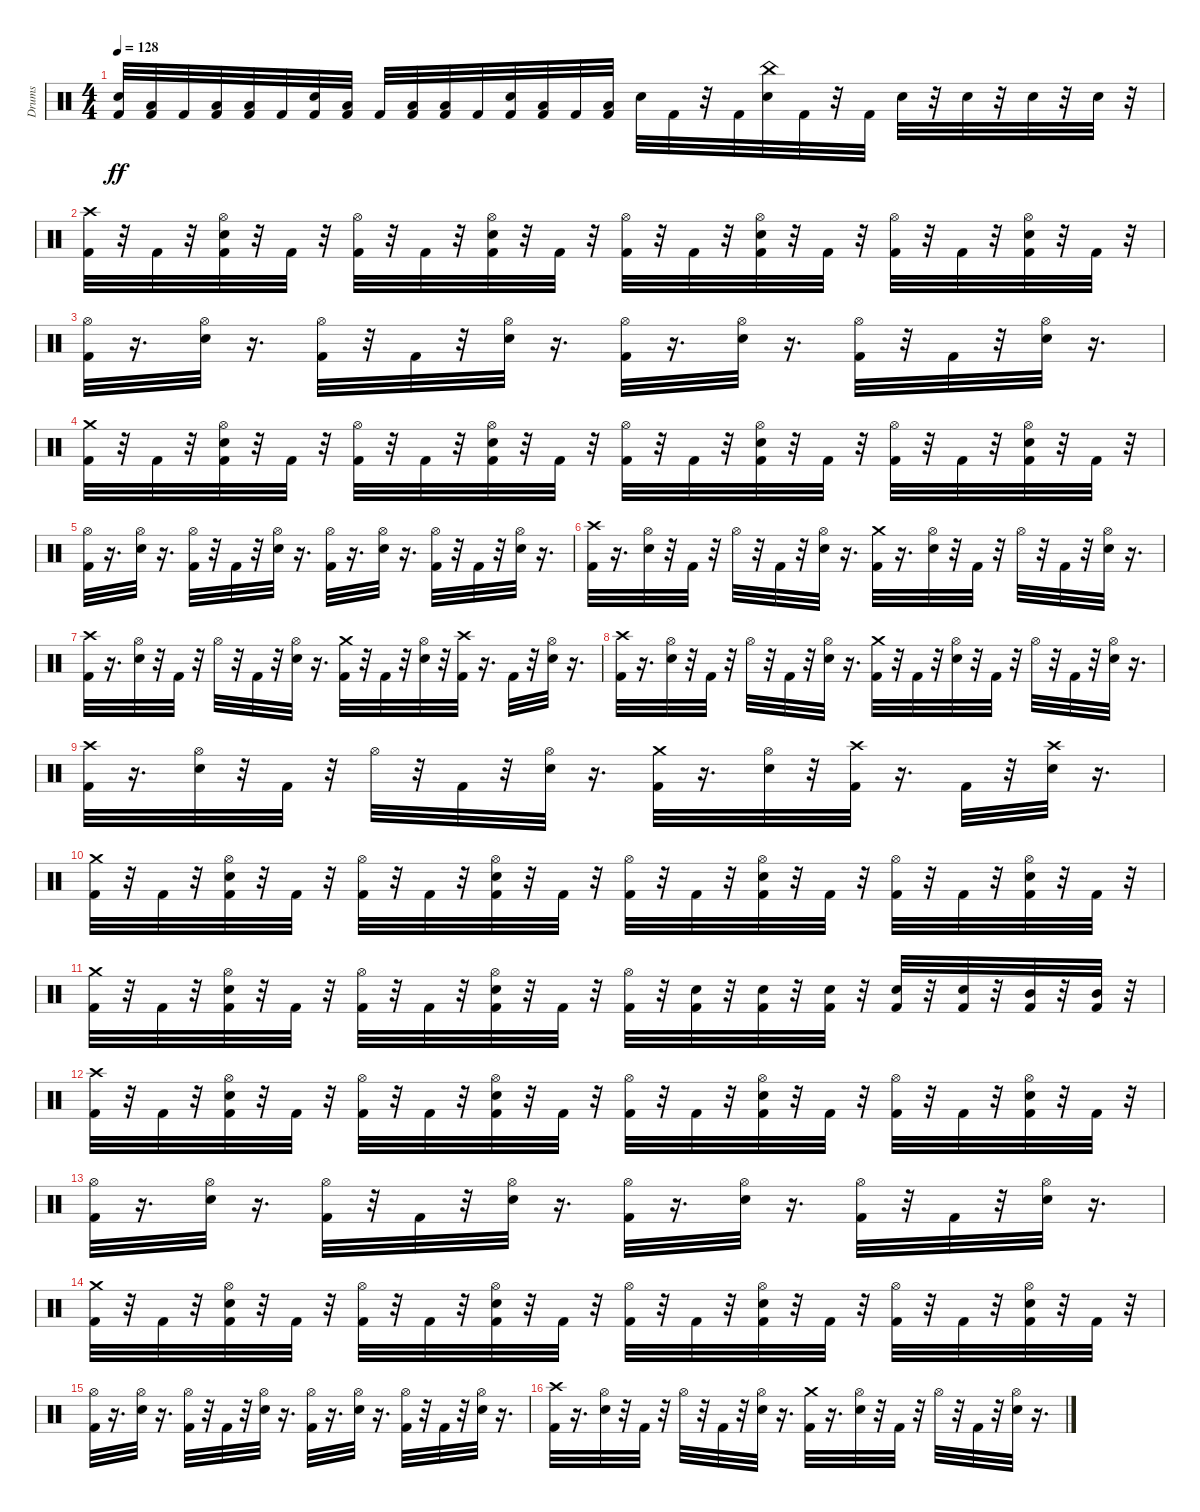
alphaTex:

\track ("Drums" "Drums") {instrument percussion}
\staff {score}
\articulation defaults
\ts (4 4)
\tempo 128
\clef neutral
\ks c
("Snare (hit) 2" "Kick (hit) 2").32{dy ff} ("Kick (hit) 2" "Low Tom (hit)").32 "Kick (hit) 2".32 ("Low Floor Tom (hit)" "Kick (hit) 2").32 ("Low Tom (hit)" "Kick (hit) 2").32 "Kick (hit) 2".32 ("Snare (hit) 2" "Kick (hit) 2").32 ("Kick (hit) 2" "Low Tom (hit)").32 "Kick (hit) 2".32 ("Low Floor Tom (hit)" "Kick (hit) 2").32 ("Kick (hit) 2" "Low Tom (hit)").32 "Kick (hit) 2".32 ("Kick (hit) 2" "Snare (hit) 2").32 ("Kick (hit) 2" "Low Tom (hit)").32 "Kick (hit) 2".32 ("Low Floor Tom (hit)" "Kick (hit) 2").32 "Snare (hit) 2".32 "Kick (hit) 2".32 r.32 "Kick (hit) 2".32 ("China (hit)" "Snare (hit) 2").32 "Kick (hit) 2".32 r.32 "Kick (hit) 2".32 "Snare (hit) 2".32 r.32 "Snare (hit) 2".32 r.32 "Snare (hit) 2".32 r.32 "Snare (hit) 2".32 r.32 |
("Kick (hit) 2" "Crash high (hit)").32 r.32 "Kick (hit) 2".32 r.32 ("Snare (hit) 2" "Kick (hit) 2" "Hi-Hat (open)").32 r.32 "Kick (hit) 2".32 r.32 ("Kick (hit) 2" "Hi-Hat (open)").32 r.32 "Kick (hit) 2".32 r.32 ("Snare (hit) 2" "Kick (hit) 2" "Hi-Hat (open)").32 r.32 "Kick (hit) 2".32 r.32 ("Kick (hit) 2" "Hi-Hat (open)").32 r.32 "Kick (hit) 2".32 r.32 ("Snare (hit) 2" "Kick (hit) 2" "Hi-Hat (open)").32 r.32 "Kick (hit) 2".32 r.32 ("Kick (hit) 2" "Hi-Hat (open)").32 r.32 "Kick (hit) 2".32 r.32 ("Snare (hit) 2" "Kick (hit) 2" "Hi-Hat (open)").32 r.32 "Kick (hit) 2".32 r.32 |
("Hi-Hat (open)" "Kick (hit) 2").32 r.16{d} ("Snare (hit) 2" "Hi-Hat (open)").32 r.16{d} ("Kick (hit) 2" "Hi-Hat (open)").32 r.32 "Kick (hit) 2".32 r.32 ("Snare (hit) 2" "Hi-Hat (open)").32 r.16{d} ("Kick (hit) 2" "Hi-Hat (open)").32 r.16{d} ("Snare (hit) 2" "Hi-Hat (open)").32 r.16{d} ("Hi-Hat (open)" "Kick (hit) 2").32 r.32 "Kick (hit) 2".32 r.32 ("Snare (hit) 2" "Hi-Hat (open)").32 r.16{d} |
("Crash medium (hit)" "Kick (hit) 2").32 r.32 "Kick (hit) 2".32 r.32 ("Snare (hit) 2" "Kick (hit) 2" "Hi-Hat (open)").32 r.32 "Kick (hit) 2".32 r.32 ("Kick (hit) 2" "Hi-Hat (open)").32 r.32 "Kick (hit) 2".32 r.32 ("Snare (hit) 2" "Kick (hit) 2" "Hi-Hat (open)").32 r.32 "Kick (hit) 2".32 r.32 ("Kick (hit) 2" "Hi-Hat (open)").32 r.32 "Kick (hit) 2".32 r.32 ("Snare (hit) 2" "Kick (hit) 2" "Hi-Hat (open)").32 r.32 "Kick (hit) 2".32 r.32 ("Kick (hit) 2" "Hi-Hat (open)").32 r.32 "Kick (hit) 2".32 r.32 ("Snare (hit) 2" "Kick (hit) 2" "Hi-Hat (open)").32 r.32 "Kick (hit) 2".32 r.32 |
("Hi-Hat (open)" "Kick (hit) 2").32 r.16{d} ("Snare (hit) 2" "Hi-Hat (open)").32 r.16{d} ("Kick (hit) 2" "Hi-Hat (open)").32 r.32 "Kick (hit) 2".32 r.32 ("Snare (hit) 2" "Hi-Hat (open)").32 r.16{d} ("Kick (hit) 2" "Hi-Hat (open)").32 r.16{d} ("Snare (hit) 2" "Hi-Hat (open)").32 r.16{d} ("Kick (hit) 2" "Hi-Hat (open)").32 r.32 "Kick (hit) 2".32 r.32 ("Snare (hit) 2" "Hi-Hat (open)").32 r.16{d} |
("Kick (hit) 2" "Crash high (hit)").32 r.16{d} ("Hi-Hat (open)" "Snare (hit) 2").32 r.32 "Kick (hit) 2".32 r.32 "Hi-Hat (open)".32 r.32 "Kick (hit) 2".32 r.32 ("Hi-Hat (open)" "Snare (hit) 2").32 r.16{d} ("Crash medium (hit)" "Kick (hit) 2").32 r.16{d} ("Hi-Hat (open)" "Snare (hit) 2").32 r.32 "Kick (hit) 2".32 r.32 "Hi-Hat (open)".32 r.32 "Kick (hit) 2".32 r.32 ("Hi-Hat (open)" "Snare (hit) 2").32 r.16{d} |
("Kick (hit) 2" "Crash high (hit)").32 r.16{d} ("Hi-Hat (open)" "Snare (hit) 2").32 r.32 "Kick (hit) 2".32 r.32 "Hi-Hat (open)".32 r.32 "Kick (hit) 2".32 r.32 ("Hi-Hat (open)" "Snare (hit) 2").32 r.16{d} ("Crash medium (hit)" "Kick (hit) 2").32 r.32 "Kick (hit) 2".32 r.32 ("Hi-Hat (open)" "Snare (hit) 2").32 r.32 ("Kick (hit) 2" "Crash high (hit)").32 r.16{d} "Kick (hit) 2".32 r.32 ("Hi-Hat (open)" "Snare (hit) 2").32 r.16{d} |
("Kick (hit) 2" "Crash high (hit)").32 r.16{d} ("Hi-Hat (open)" "Snare (hit) 2").32 r.32 "Kick (hit) 2".32 r.32 "Hi-Hat (open)".32 r.32 "Kick (hit) 2".32 r.32 ("Hi-Hat (open)" "Snare (hit) 2").32 r.16{d} ("Crash medium (hit)" "Kick (hit) 2").32 r.32 "Kick (hit) 2".32 r.32 ("Hi-Hat (open)" "Snare (hit) 2").32 r.32 "Kick (hit) 2".32 r.32 "Hi-Hat (open)".32 r.32 "Kick (hit) 2".32 r.32 ("Hi-Hat (open)" "Snare (hit) 2").32 r.16{d} |
("Kick (hit) 2" "Crash high (hit)").32 r.16{d} ("Hi-Hat (open)" "Snare (hit) 2").32 r.32 "Kick (hit) 2".32 r.32 "Hi-Hat (open)".32 r.32 "Kick (hit) 2".32 r.32 ("Hi-Hat (open)" "Snare (hit) 2").32 r.16{d} ("Crash medium (hit)" "Kick (hit) 2").32 r.16{d} ("Hi-Hat (open)" "Snare (hit) 2").32 r.32 ("Crash high (hit)" "Kick (hit) 2").32 r.16{d} "Kick (hit) 2".32 r.32 ("Crash high (hit)" "Snare (hit) 2").32 r.16{d} |
("Kick (hit) 2" "Crash medium (hit)").32 r.32 "Kick (hit) 2".32 r.32 ("Kick (hit) 2" "Hi-Hat (open)" "Snare (hit) 2").32 r.32 "Kick (hit) 2".32 r.32 ("Kick (hit) 2" "Hi-Hat (open)").32 r.32 "Kick (hit) 2".32 r.32 ("Kick (hit) 2" "Hi-Hat (open)" "Snare (hit) 2").32 r.32 "Kick (hit) 2".32 r.32 ("Kick (hit) 2" "Hi-Hat (open)").32 r.32 "Kick (hit) 2".32 r.32 ("Kick (hit) 2" "Hi-Hat (open)" "Snare (hit) 2").32 r.32 "Kick (hit) 2".32 r.32 ("Kick (hit) 2" "Hi-Hat (open)").32 r.32 "Kick (hit) 2".32 r.32 ("Kick (hit) 2" "Hi-Hat (open)" "Snare (hit) 2").32 r.32 "Kick (hit) 2".32 r.32 |
("Kick (hit) 2" "Crash medium (hit)").32 r.32 "Kick (hit) 2".32 r.32 ("Kick (hit) 2" "Hi-Hat (open)" "Snare (hit) 2").32 r.32 "Kick (hit) 2".32 r.32 ("Kick (hit) 2" "Hi-Hat (open)").32 r.32 "Kick (hit) 2".32 r.32 ("Kick (hit) 2" "Hi-Hat (open)" "Snare (hit) 2").32 r.32 "Kick (hit) 2".32 r.32 ("Kick (hit) 2" "Hi-Hat (open)").32 r.32 ("Kick (hit) 2" "Snare (hit) 2").32 r.32 ("Kick (hit) 2" "Snare (hit) 2").32 r.32 ("Kick (hit) 2" "Snare (hit) 2").32 r.32 ("Kick (hit) 2" "Snare (hit) 2").32 r.32 ("Kick (hit) 2" "Snare (hit) 2").32 r.32 ("Kick (hit) 2" "Mid Tom (hit)").32 r.32 ("Kick (hit) 2" "Mid Tom (hit)").32 r.32 |
("Kick (hit) 2" "Crash high (hit)").32 r.32 "Kick (hit) 2".32 r.32 ("Snare (hit) 2" "Kick (hit) 2" "Hi-Hat (open)").32 r.32 "Kick (hit) 2".32 r.32 ("Kick (hit) 2" "Hi-Hat (open)").32 r.32 "Kick (hit) 2".32 r.32 ("Snare (hit) 2" "Kick (hit) 2" "Hi-Hat (open)").32 r.32 "Kick (hit) 2".32 r.32 ("Kick (hit) 2" "Hi-Hat (open)").32 r.32 "Kick (hit) 2".32 r.32 ("Snare (hit) 2" "Kick (hit) 2" "Hi-Hat (open)").32 r.32 "Kick (hit) 2".32 r.32 ("Kick (hit) 2" "Hi-Hat (open)").32 r.32 "Kick (hit) 2".32 r.32 ("Snare (hit) 2" "Kick (hit) 2" "Hi-Hat (open)").32 r.32 "Kick (hit) 2".32 r.32 |
("Hi-Hat (open)" "Kick (hit) 2").32 r.16{d} ("Snare (hit) 2" "Hi-Hat (open)").32 r.16{d} ("Kick (hit) 2" "Hi-Hat (open)").32 r.32 "Kick (hit) 2".32 r.32 ("Snare (hit) 2" "Hi-Hat (open)").32 r.16{d} ("Kick (hit) 2" "Hi-Hat (open)").32 r.16{d} ("Snare (hit) 2" "Hi-Hat (open)").32 r.16{d} ("Hi-Hat (open)" "Kick (hit) 2").32 r.32 "Kick (hit) 2".32 r.32 ("Snare (hit) 2" "Hi-Hat (open)").32 r.16{d} |
("Crash medium (hit)" "Kick (hit) 2").32 r.32 "Kick (hit) 2".32 r.32 ("Snare (hit) 2" "Kick (hit) 2" "Hi-Hat (open)").32 r.32 "Kick (hit) 2".32 r.32 ("Kick (hit) 2" "Hi-Hat (open)").32 r.32 "Kick (hit) 2".32 r.32 ("Snare (hit) 2" "Kick (hit) 2" "Hi-Hat (open)").32 r.32 "Kick (hit) 2".32 r.32 ("Kick (hit) 2" "Hi-Hat (open)").32 r.32 "Kick (hit) 2".32 r.32 ("Snare (hit) 2" "Kick (hit) 2" "Hi-Hat (open)").32 r.32 "Kick (hit) 2".32 r.32 ("Kick (hit) 2" "Hi-Hat (open)").32 r.32 "Kick (hit) 2".32 r.32 ("Snare (hit) 2" "Kick (hit) 2" "Hi-Hat (open)").32 r.32 "Kick (hit) 2".32 r.32 |
("Hi-Hat (open)" "Kick (hit) 2").32 r.16{d} ("Snare (hit) 2" "Hi-Hat (open)").32 r.16{d} ("Kick (hit) 2" "Hi-Hat (open)").32 r.32 "Kick (hit) 2".32 r.32 ("Snare (hit) 2" "Hi-Hat (open)").32 r.16{d} ("Kick (hit) 2" "Hi-Hat (open)").32 r.16{d} ("Snare (hit) 2" "Hi-Hat (open)").32 r.16{d} ("Kick (hit) 2" "Hi-Hat (open)").32 r.32 "Kick (hit) 2".32 r.32 ("Snare (hit) 2" "Hi-Hat (open)").32 r.16{d} |
("Kick (hit) 2" "Crash high (hit)").32 r.16{d} ("Hi-Hat (open)" "Snare (hit) 2").32 r.32 "Kick (hit) 2".32 r.32 "Hi-Hat (open)".32 r.32 "Kick (hit) 2".32 r.32 ("Hi-Hat (open)" "Snare (hit) 2").32 r.16{d} ("Crash medium (hit)" "Kick (hit) 2").32 r.16{d} ("Hi-Hat (open)" "Snare (hit) 2").32 r.32 "Kick (hit) 2".32 r.32 "Hi-Hat (open)".32 r.32 "Kick (hit) 2".32 r.32 ("Hi-Hat (open)" "Snare (hit) 2").32 r.16{d}
